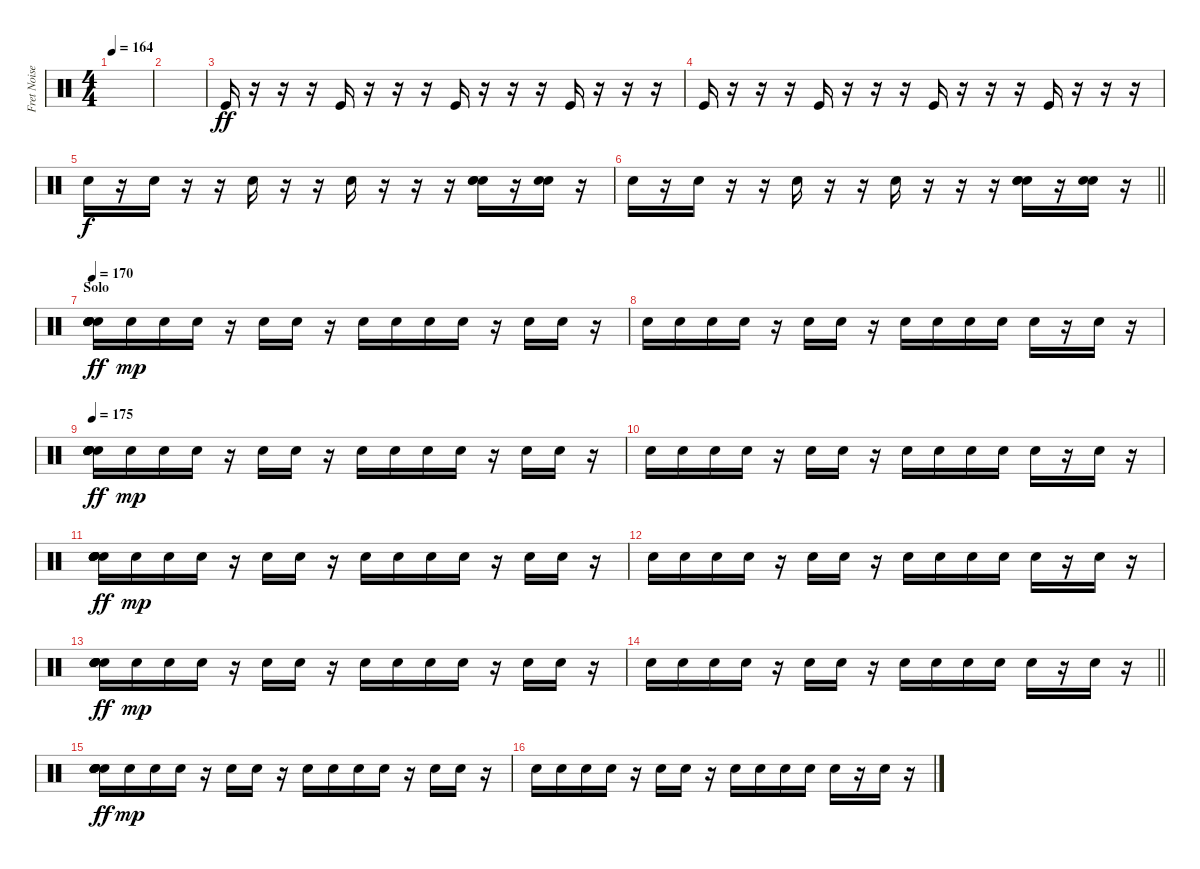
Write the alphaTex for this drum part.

\track ("Fret Noise / Percussion(corpus)" "Fret Noise") {instrument percussion}
\staff {score}
\articulation defaults
\ts (4 4)
\tempo 164
\clef neutral
\ks c
|
|
"Kick (hit)".16{dy ff} r.16 r.16 r.16 "Kick (hit)".16 r.16 r.16 r.16 "Kick (hit)".16 r.16 r.16 r.16 "Kick (hit)".16 r.16 r.16 r.16 |
"Kick (hit)".16 r.16 r.16 r.16 "Kick (hit)".16 r.16 r.16 r.16 "Kick (hit)".16 r.16 r.16 r.16 "Kick (hit)".16 r.16 r.16 r.16 |
"Snare (hit) 2".16{dy f} r.16 "Snare (hit) 2".16 r.16 r.16 "Snare (hit) 2".16 r.16 r.16 "Snare (hit) 2".16 r.16 r.16 r.16 ("Snare (hit) 2" "Snare (hit) 2" "Snare (hit) 2").16 r.16 ("Snare (hit) 2" "Snare (hit) 2").16 r.16 |
\barLineRight lightlight "Snare (hit) 2".16
r.16 "Snare (hit) 2".16 r.16 r.16 "Snare (hit) 2".16 r.16 r.16 "Snare (hit) 2".16 r.16 r.16 r.16 ("Snare (hit) 2" "Snare (hit) 2" "Snare (hit) 2").16 r.16 ("Snare (hit) 2" "Snare (hit) 2").16 r.16 |
\section ("" "Solo")
\tempo 170
("Snare (hit) 2" "Snare (hit) 2" "Snare (hit) 2" "Snare (hit) 2" "Snare (hit) 2" "Snare (hit) 2").16{dy ff} "Snare (hit) 2".16{dy mp} "Snare (hit) 2".16 "Snare (hit) 2".16 r.16 "Snare (hit) 2".16 "Snare (hit) 2".16 r.16 "Snare (hit) 2".16 "Snare (hit) 2".16 "Snare (hit) 2".16 "Snare (hit) 2".16 r.16 "Snare (hit) 2".16 "Snare (hit) 2".16 r.16 |
"Snare (hit) 2".16 "Snare (hit) 2".16 "Snare (hit) 2".16 "Snare (hit) 2".16 r.16 "Snare (hit) 2".16 "Snare (hit) 2".16 r.16 "Snare (hit) 2".16 "Snare (hit) 2".16 "Snare (hit) 2".16 "Snare (hit) 2".16 "Snare (hit) 2".16 r.16 "Snare (hit) 2".16 r.16 |
\tempo 175
("Snare (hit) 2" "Snare (hit) 2" "Snare (hit) 2" "Snare (hit) 2" "Snare (hit) 2" "Snare (hit) 2").16{dy ff} "Snare (hit) 2".16{dy mp} "Snare (hit) 2".16 "Snare (hit) 2".16 r.16 "Snare (hit) 2".16 "Snare (hit) 2".16 r.16 "Snare (hit) 2".16 "Snare (hit) 2".16 "Snare (hit) 2".16 "Snare (hit) 2".16 r.16 "Snare (hit) 2".16 "Snare (hit) 2".16 r.16 |
"Snare (hit) 2".16 "Snare (hit) 2".16 "Snare (hit) 2".16 "Snare (hit) 2".16 r.16 "Snare (hit) 2".16 "Snare (hit) 2".16 r.16 "Snare (hit) 2".16 "Snare (hit) 2".16 "Snare (hit) 2".16 "Snare (hit) 2".16 "Snare (hit) 2".16 r.16 "Snare (hit) 2".16 r.16 |
("Snare (hit) 2" "Snare (hit) 2" "Snare (hit) 2" "Snare (hit) 2" "Snare (hit) 2" "Snare (hit) 2").16{dy ff} "Snare (hit) 2".16{dy mp} "Snare (hit) 2".16 "Snare (hit) 2".16 r.16 "Snare (hit) 2".16 "Snare (hit) 2".16 r.16 "Snare (hit) 2".16 "Snare (hit) 2".16 "Snare (hit) 2".16 "Snare (hit) 2".16 r.16 "Snare (hit) 2".16 "Snare (hit) 2".16 r.16 |
"Snare (hit) 2".16 "Snare (hit) 2".16 "Snare (hit) 2".16 "Snare (hit) 2".16 r.16 "Snare (hit) 2".16 "Snare (hit) 2".16 r.16 "Snare (hit) 2".16 "Snare (hit) 2".16 "Snare (hit) 2".16 "Snare (hit) 2".16 "Snare (hit) 2".16 r.16 "Snare (hit) 2".16 r.16 |
("Snare (hit) 2" "Snare (hit) 2" "Snare (hit) 2" "Snare (hit) 2" "Snare (hit) 2" "Snare (hit) 2").16{dy ff} "Snare (hit) 2".16{dy mp} "Snare (hit) 2".16 "Snare (hit) 2".16 r.16 "Snare (hit) 2".16 "Snare (hit) 2".16 r.16 "Snare (hit) 2".16 "Snare (hit) 2".16 "Snare (hit) 2".16 "Snare (hit) 2".16 r.16 "Snare (hit) 2".16 "Snare (hit) 2".16 r.16 |
\barLineRight lightlight "Snare (hit) 2".16 "Snare (hit) 2".16 "Snare (hit) 2".16 "Snare (hit) 2".16
r.16 "Snare (hit) 2".16 "Snare (hit) 2".16 r.16 "Snare (hit) 2".16 "Snare (hit) 2".16 "Snare (hit) 2".16 "Snare (hit) 2".16 "Snare (hit) 2".16 r.16 "Snare (hit) 2".16 r.16 |
("Snare (hit) 2" "Snare (hit) 2" "Snare (hit) 2" "Snare (hit) 2" "Snare (hit) 2" "Snare (hit) 2").16{dy ff} "Snare (hit) 2".16{dy mp} "Snare (hit) 2".16 "Snare (hit) 2".16 r.16 "Snare (hit) 2".16 "Snare (hit) 2".16 r.16 "Snare (hit) 2".16 "Snare (hit) 2".16 "Snare (hit) 2".16 "Snare (hit) 2".16 r.16 "Snare (hit) 2".16 "Snare (hit) 2".16 r.16 |
"Snare (hit) 2".16 "Snare (hit) 2".16 "Snare (hit) 2".16 "Snare (hit) 2".16 r.16 "Snare (hit) 2".16 "Snare (hit) 2".16 r.16 "Snare (hit) 2".16 "Snare (hit) 2".16 "Snare (hit) 2".16 "Snare (hit) 2".16 "Snare (hit) 2".16 r.16 "Snare (hit) 2".16 r.16
